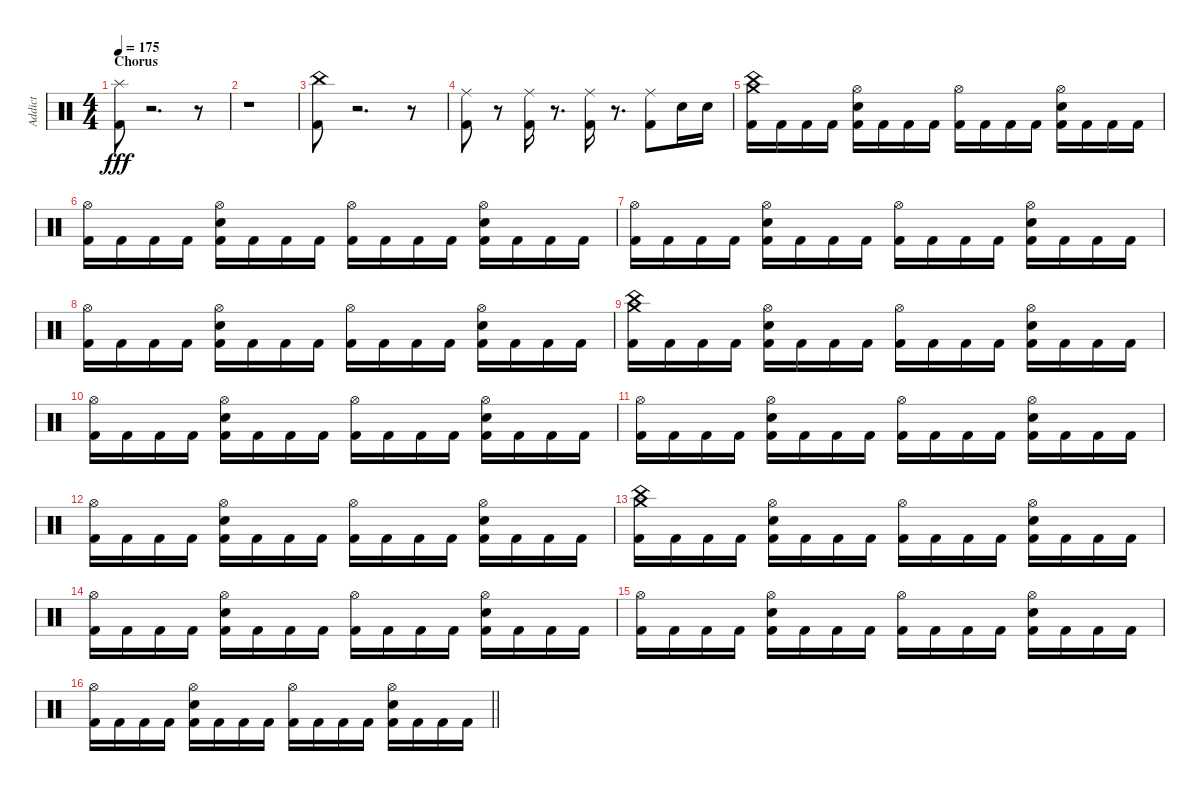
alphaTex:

\track ("Addict" "Addict") {instrument percussion}
\staff {score}
\articulation defaults
\ts (4 4)
\section ("" "Chorus")
\tempo 175
\clef neutral
\ks c
("Kick (hit) 2" "Splash (hit)").8{dy fff} r.2{d} r.8 |
r.1 |
("Kick (hit) 2" "China (hit)").8 r.2{d} r.8 |
("Kick (hit) 2" "Ride (middle)").8 r.8 ("Kick (hit) 2" "Ride (middle)").16 r.8{d} ("Kick (hit) 2" "Ride (middle)").16 r.8{d} ("Kick (hit) 2" "Ride (middle)").8 "Snare (hit) 2".16 "Snare (hit) 2".16 |
("Kick (hit) 2" "Crash medium (hit)" "China (hit)").16 "Kick (hit) 2".16 "Kick (hit) 2".16 "Kick (hit) 2".16 ("Kick (hit) 2" "Snare (hit) 2" "Hi-Hat (open)").16 "Kick (hit) 2".16 "Kick (hit) 2".16 "Kick (hit) 2".16 ("Kick (hit) 2" "Hi-Hat (open)").16 "Kick (hit) 2".16 "Kick (hit) 2".16 "Kick (hit) 2".16 ("Kick (hit) 2" "Snare (hit) 2" "Hi-Hat (open)").16 "Kick (hit) 2".16 "Kick (hit) 2".16 "Kick (hit) 2".16 |
("Kick (hit) 2" "Hi-Hat (open)").16 "Kick (hit) 2".16 "Kick (hit) 2".16 "Kick (hit) 2".16 ("Kick (hit) 2" "Snare (hit) 2" "Hi-Hat (open)").16 "Kick (hit) 2".16 "Kick (hit) 2".16 "Kick (hit) 2".16 ("Kick (hit) 2" "Hi-Hat (open)").16 "Kick (hit) 2".16 "Kick (hit) 2".16 "Kick (hit) 2".16 ("Kick (hit) 2" "Snare (hit) 2" "Hi-Hat (open)").16 "Kick (hit) 2".16 "Kick (hit) 2".16 "Kick (hit) 2".16 |
("Kick (hit) 2" "Hi-Hat (open)").16 "Kick (hit) 2".16 "Kick (hit) 2".16 "Kick (hit) 2".16 ("Kick (hit) 2" "Snare (hit) 2" "Hi-Hat (open)").16 "Kick (hit) 2".16 "Kick (hit) 2".16 "Kick (hit) 2".16 ("Kick (hit) 2" "Hi-Hat (open)").16 "Kick (hit) 2".16 "Kick (hit) 2".16 "Kick (hit) 2".16 ("Kick (hit) 2" "Snare (hit) 2" "Hi-Hat (open)").16 "Kick (hit) 2".16 "Kick (hit) 2".16 "Kick (hit) 2".16 |
("Kick (hit) 2" "Hi-Hat (open)").16 "Kick (hit) 2".16 "Kick (hit) 2".16 "Kick (hit) 2".16 ("Kick (hit) 2" "Snare (hit) 2" "Hi-Hat (open)").16 "Kick (hit) 2".16 "Kick (hit) 2".16 "Kick (hit) 2".16 ("Kick (hit) 2" "Hi-Hat (open)").16 "Kick (hit) 2".16 "Kick (hit) 2".16 "Kick (hit) 2".16 ("Kick (hit) 2" "Snare (hit) 2" "Hi-Hat (open)").16 "Kick (hit) 2".16 "Kick (hit) 2".16 "Kick (hit) 2".16 |
("Kick (hit) 2" "Crash medium (hit)" "China (hit)").16 "Kick (hit) 2".16 "Kick (hit) 2".16 "Kick (hit) 2".16 ("Kick (hit) 2" "Snare (hit) 2" "Hi-Hat (open)").16 "Kick (hit) 2".16 "Kick (hit) 2".16 "Kick (hit) 2".16 ("Kick (hit) 2" "Hi-Hat (open)").16 "Kick (hit) 2".16 "Kick (hit) 2".16 "Kick (hit) 2".16 ("Kick (hit) 2" "Snare (hit) 2" "Hi-Hat (open)").16 "Kick (hit) 2".16 "Kick (hit) 2".16 "Kick (hit) 2".16 |
("Kick (hit) 2" "Hi-Hat (open)").16 "Kick (hit) 2".16 "Kick (hit) 2".16 "Kick (hit) 2".16 ("Kick (hit) 2" "Snare (hit) 2" "Hi-Hat (open)").16 "Kick (hit) 2".16 "Kick (hit) 2".16 "Kick (hit) 2".16 ("Kick (hit) 2" "Hi-Hat (open)").16 "Kick (hit) 2".16 "Kick (hit) 2".16 "Kick (hit) 2".16 ("Kick (hit) 2" "Snare (hit) 2" "Hi-Hat (open)").16 "Kick (hit) 2".16 "Kick (hit) 2".16 "Kick (hit) 2".16 |
("Kick (hit) 2" "Hi-Hat (open)").16 "Kick (hit) 2".16 "Kick (hit) 2".16 "Kick (hit) 2".16 ("Kick (hit) 2" "Snare (hit) 2" "Hi-Hat (open)").16 "Kick (hit) 2".16 "Kick (hit) 2".16 "Kick (hit) 2".16 ("Kick (hit) 2" "Hi-Hat (open)").16 "Kick (hit) 2".16 "Kick (hit) 2".16 "Kick (hit) 2".16 ("Kick (hit) 2" "Snare (hit) 2" "Hi-Hat (open)").16 "Kick (hit) 2".16 "Kick (hit) 2".16 "Kick (hit) 2".16 |
("Kick (hit) 2" "Hi-Hat (open)").16 "Kick (hit) 2".16 "Kick (hit) 2".16 "Kick (hit) 2".16 ("Kick (hit) 2" "Snare (hit) 2" "Hi-Hat (open)").16 "Kick (hit) 2".16 "Kick (hit) 2".16 "Kick (hit) 2".16 ("Kick (hit) 2" "Hi-Hat (open)").16 "Kick (hit) 2".16 "Kick (hit) 2".16 "Kick (hit) 2".16 ("Kick (hit) 2" "Snare (hit) 2" "Hi-Hat (open)").16 "Kick (hit) 2".16 "Kick (hit) 2".16 "Kick (hit) 2".16 |
("Kick (hit) 2" "Crash medium (hit)" "China (hit)").16 "Kick (hit) 2".16 "Kick (hit) 2".16 "Kick (hit) 2".16 ("Kick (hit) 2" "Snare (hit) 2" "Hi-Hat (open)").16 "Kick (hit) 2".16 "Kick (hit) 2".16 "Kick (hit) 2".16 ("Kick (hit) 2" "Hi-Hat (open)").16 "Kick (hit) 2".16 "Kick (hit) 2".16 "Kick (hit) 2".16 ("Kick (hit) 2" "Snare (hit) 2" "Hi-Hat (open)").16 "Kick (hit) 2".16 "Kick (hit) 2".16 "Kick (hit) 2".16 |
("Kick (hit) 2" "Hi-Hat (open)").16 "Kick (hit) 2".16 "Kick (hit) 2".16 "Kick (hit) 2".16 ("Kick (hit) 2" "Snare (hit) 2" "Hi-Hat (open)").16 "Kick (hit) 2".16 "Kick (hit) 2".16 "Kick (hit) 2".16 ("Kick (hit) 2" "Hi-Hat (open)").16 "Kick (hit) 2".16 "Kick (hit) 2".16 "Kick (hit) 2".16 ("Kick (hit) 2" "Snare (hit) 2" "Hi-Hat (open)").16 "Kick (hit) 2".16 "Kick (hit) 2".16 "Kick (hit) 2".16 |
("Kick (hit) 2" "Hi-Hat (open)").16 "Kick (hit) 2".16 "Kick (hit) 2".16 "Kick (hit) 2".16 ("Kick (hit) 2" "Snare (hit) 2" "Hi-Hat (open)").16 "Kick (hit) 2".16 "Kick (hit) 2".16 "Kick (hit) 2".16 ("Kick (hit) 2" "Hi-Hat (open)").16 "Kick (hit) 2".16 "Kick (hit) 2".16 "Kick (hit) 2".16 ("Kick (hit) 2" "Snare (hit) 2" "Hi-Hat (open)").16 "Kick (hit) 2".16 "Kick (hit) 2".16 "Kick (hit) 2".16 |
\barLineRight lightlight
("Kick (hit) 2" "Hi-Hat (open)").16 "Kick (hit) 2".16 "Kick (hit) 2".16 "Kick (hit) 2".16 ("Kick (hit) 2" "Snare (hit) 2" "Hi-Hat (open)").16 "Kick (hit) 2".16 "Kick (hit) 2".16 "Kick (hit) 2".16 ("Kick (hit) 2" "Hi-Hat (open)").16 "Kick (hit) 2".16 "Kick (hit) 2".16 "Kick (hit) 2".16 ("Kick (hit) 2" "Snare (hit) 2" "Hi-Hat (open)").16 "Kick (hit) 2".16 "Kick (hit) 2".16 "Kick (hit) 2".16
